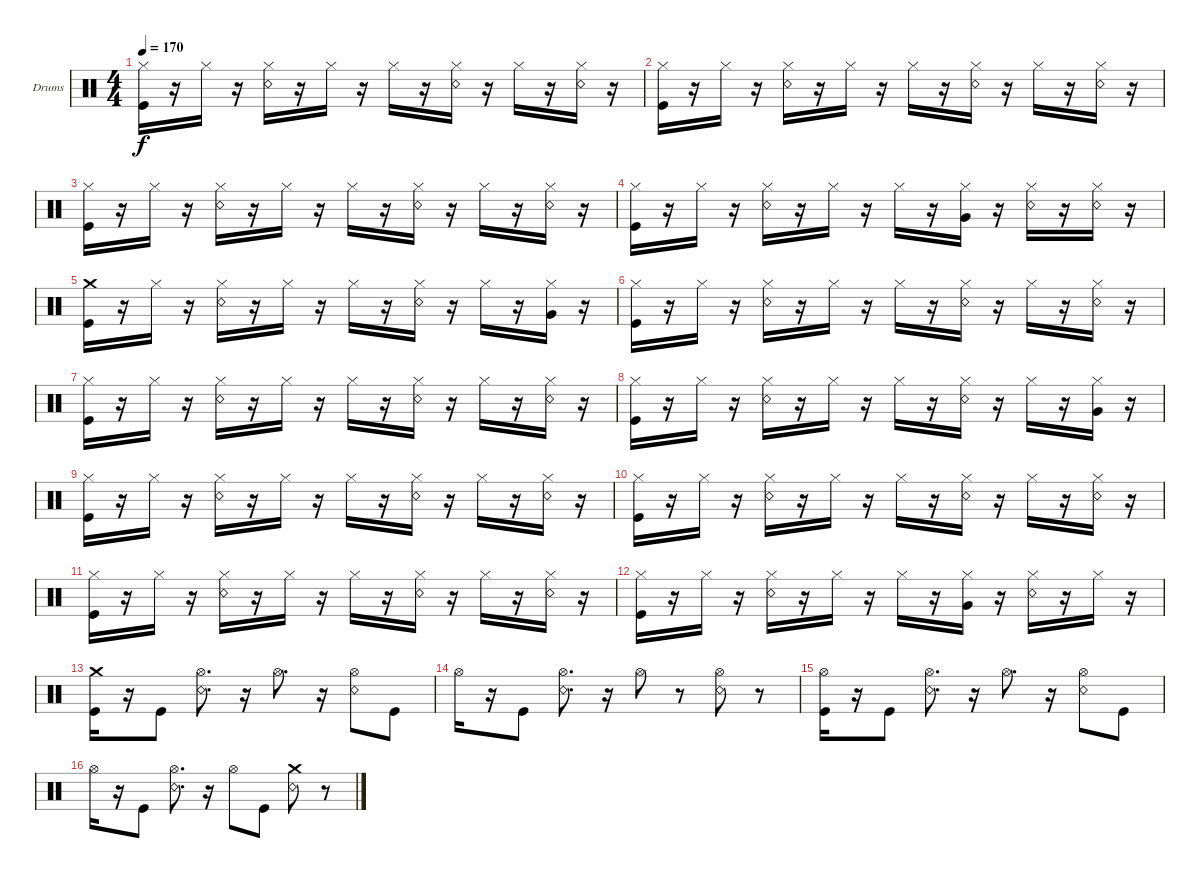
\bracketExtendMode groupsimilarinstruments
\firstSystemTrackNameOrientation horizontal
\otherSystemsTrackNameOrientation horizontal
\track ("Drumkit" "Drums") {instrument percussion}
\staff {score}
\articulation defaults
\ts (4 4)
\tempo 170
\clef neutral
\ks c
("Kick (hit)" "Hi-Hat (closed)").16{dy f} r.16 "Hi-Hat (closed)".16 r.16 ("Snare (rim shot)" "Hi-Hat (closed)").16 r.16 "Hi-Hat (closed)".16 r.16 "Hi-Hat (closed)".16 r.16 ("Snare (rim shot)" "Hi-Hat (closed)").16 r.16 "Hi-Hat (closed)".16 r.16 ("Snare (rim shot)" "Hi-Hat (closed)").16 r.16 |
("Kick (hit)" "Hi-Hat (closed)").16 r.16 "Hi-Hat (closed)".16 r.16 ("Snare (rim shot)" "Hi-Hat (closed)").16 r.16 "Hi-Hat (closed)".16 r.16 "Hi-Hat (closed)".16 r.16 ("Snare (rim shot)" "Hi-Hat (closed)").16 r.16 "Hi-Hat (closed)".16 r.16 ("Snare (rim shot)" "Hi-Hat (closed)").16 r.16 |
("Kick (hit)" "Hi-Hat (closed)").16 r.16 "Hi-Hat (closed)".16 r.16 ("Snare (rim shot)" "Hi-Hat (closed)").16 r.16 "Hi-Hat (closed)".16 r.16 "Hi-Hat (closed)".16 r.16 ("Snare (rim shot)" "Hi-Hat (closed)").16 r.16 "Hi-Hat (closed)".16 r.16 ("Snare (rim shot)" "Hi-Hat (closed)").16 r.16 |
("Kick (hit)" "Hi-Hat (closed)").16 r.16 "Hi-Hat (closed)".16 r.16 ("Snare (rim shot)" "Hi-Hat (closed)").16 r.16 "Hi-Hat (closed)".16 r.16 "Hi-Hat (closed)".16 r.16 ("Very Low Tom (hit)" "Hi-Hat (closed)").16 r.16 ("Snare (rim shot)" "Hi-Hat (closed)").16 r.16 ("Snare (rim shot)" "Hi-Hat (closed)").16 r.16 |
("Kick (hit)" "Crash medium (hit)").16 r.16 "Hi-Hat (closed)".16 r.16 ("Snare (rim shot)" "Hi-Hat (closed)").16 r.16 "Hi-Hat (closed)".16 r.16 "Hi-Hat (closed)".16 r.16 ("Snare (rim shot)" "Hi-Hat (closed)").16 r.16 "Hi-Hat (closed)".16 r.16 ("Very Low Tom (hit)" "Hi-Hat (closed)").16 r.16 |
("Kick (hit)" "Hi-Hat (closed)").16 r.16 "Hi-Hat (closed)".16 r.16 ("Snare (rim shot)" "Hi-Hat (closed)").16 r.16 "Hi-Hat (closed)".16 r.16 "Hi-Hat (closed)".16 r.16 ("Snare (rim shot)" "Hi-Hat (closed)").16 r.16 "Hi-Hat (closed)".16 r.16 ("Snare (rim shot)" "Hi-Hat (closed)").16 r.16 |
("Kick (hit)" "Hi-Hat (closed)").16 r.16 "Hi-Hat (closed)".16 r.16 ("Snare (rim shot)" "Hi-Hat (closed)").16 r.16 "Hi-Hat (closed)".16 r.16 "Hi-Hat (closed)".16 r.16 ("Snare (rim shot)" "Hi-Hat (closed)").16 r.16 "Hi-Hat (closed)".16 r.16 ("Snare (rim shot)" "Hi-Hat (closed)").16 r.16 |
("Kick (hit)" "Hi-Hat (closed)").16 r.16 "Hi-Hat (closed)".16 r.16 ("Snare (rim shot)" "Hi-Hat (closed)").16 r.16 "Hi-Hat (closed)".16 r.16 "Hi-Hat (closed)".16 r.16 ("Snare (rim shot)" "Hi-Hat (closed)").16 r.16 "Hi-Hat (closed)".16 r.16 ("Very Low Tom (hit)" "Hi-Hat (closed)").16 r.16 |
("Kick (hit)" "Hi-Hat (closed)").16 r.16 "Hi-Hat (closed)".16 r.16 ("Snare (rim shot)" "Hi-Hat (closed)").16 r.16 "Hi-Hat (closed)".16 r.16 "Hi-Hat (closed)".16 r.16 ("Snare (rim shot)" "Hi-Hat (closed)").16 r.16 "Hi-Hat (closed)".16 r.16 ("Snare (rim shot)" "Hi-Hat (closed)").16 r.16 |
("Kick (hit)" "Hi-Hat (closed)").16 r.16 "Hi-Hat (closed)".16 r.16 ("Snare (rim shot)" "Hi-Hat (closed)").16 r.16 "Hi-Hat (closed)".16 r.16 "Hi-Hat (closed)".16 r.16 ("Snare (rim shot)" "Hi-Hat (closed)").16 r.16 "Hi-Hat (closed)".16 r.16 ("Snare (rim shot)" "Hi-Hat (closed)").16 r.16 |
("Kick (hit)" "Hi-Hat (closed)").16 r.16 "Hi-Hat (closed)".16 r.16 ("Snare (rim shot)" "Hi-Hat (closed)").16 r.16 "Hi-Hat (closed)".16 r.16 "Hi-Hat (closed)".16 r.16 ("Snare (rim shot)" "Hi-Hat (closed)").16 r.16 "Hi-Hat (closed)".16 r.16 ("Snare (rim shot)" "Hi-Hat (closed)").16 r.16 |
("Kick (hit)" "Hi-Hat (closed)").16 r.16 "Hi-Hat (closed)".16 r.16 ("Snare (rim shot)" "Hi-Hat (closed)").16 r.16 "Hi-Hat (closed)".16 r.16 "Hi-Hat (closed)".16 r.16 ("Very Low Tom (hit)" "Hi-Hat (closed)").16 r.16 ("Snare (rim shot)" "Hi-Hat (closed)").16 r.16 "Hi-Hat (closed)".16 r.16 |
("Kick (hit)" "Crash medium (hit)").16 r.16 "Kick (hit)".8 ("Snare (rim shot)" "Hi-Hat (open)").8{d} r.16 "Hi-Hat (open)".8{d} r.16 ("Snare (rim shot)" "Hi-Hat (open)").8 "Kick (hit)".8 |
"Hi-Hat (open)".16 r.16 "Kick (hit)".8 ("Snare (rim shot)" "Hi-Hat (open)").8{d} r.16 "Hi-Hat (open)".8 r.8 ("Snare (rim shot)" "Hi-Hat (open)").8 r.8 |
("Kick (hit)" "Hi-Hat (open)").16 r.16 "Kick (hit)".8 ("Snare (rim shot)" "Hi-Hat (open)").8{d} r.16 "Hi-Hat (open)".8{d} r.16 ("Snare (rim shot)" "Hi-Hat (open)").8 "Kick (hit)".8 |
"Hi-Hat (open)".16 r.16 "Kick (hit)".8 ("Snare (rim shot)" "Hi-Hat (open)").8{d} r.16 "Hi-Hat (open)".8 "Kick (hit)".8 ("Snare (rim shot)" "Crash medium (hit)").8 r.8
